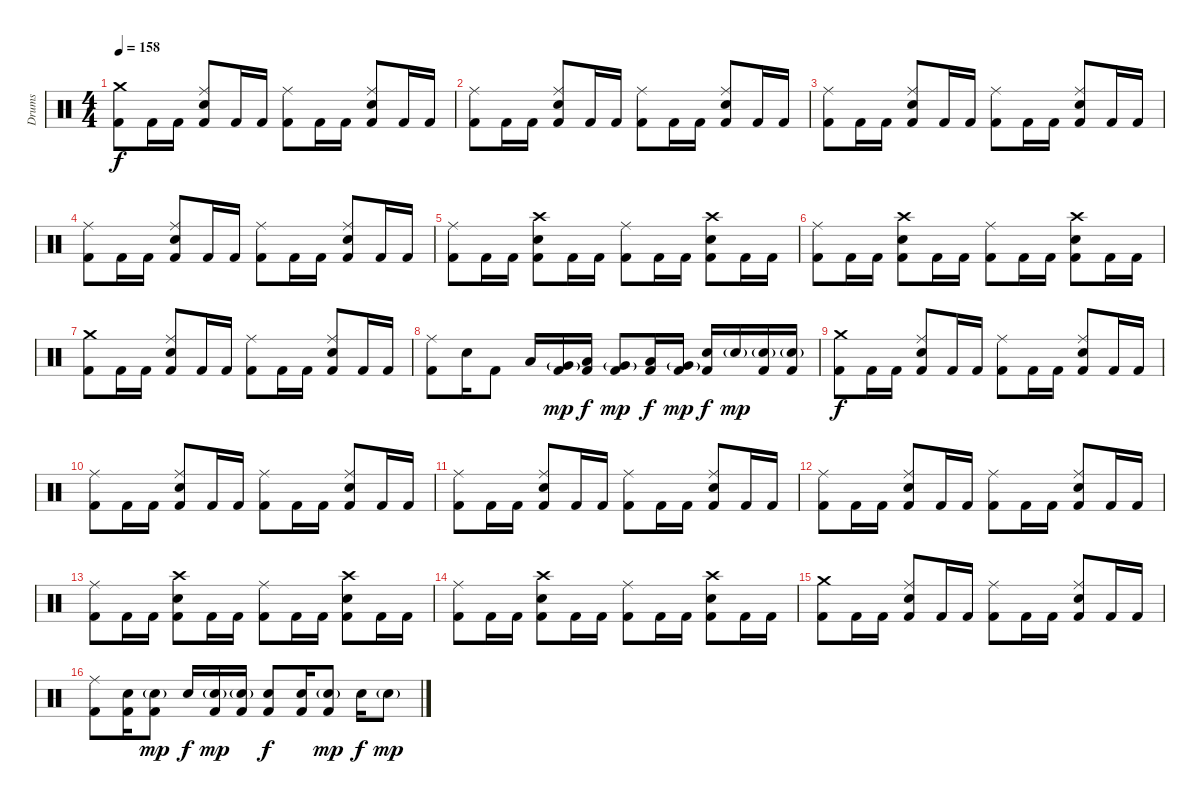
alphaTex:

\track ("Drums" "Drums") {instrument percussion}
\staff {score}
\articulation defaults
\ts (4 4)
\section ("" "")
\tempo 158
\clef neutral
\ks c
("Crash medium (hit)" "Kick (hit) 2").8{dy f} "Kick (hit) 2".16 "Kick (hit) 2".16 ("Ride (middle)" "Electric Snare (hit)" "Kick (hit) 2").8 "Kick (hit) 2".16 "Kick (hit) 2".16 ("Ride (middle)" "Kick (hit) 2").8 "Kick (hit) 2".16 "Kick (hit) 2".16 ("Ride (middle)" "Electric Snare (hit)" "Kick (hit) 2").8 "Kick (hit) 2".16 "Kick (hit) 2".16 |
("Ride (middle)" "Kick (hit) 2").8 "Kick (hit) 2".16 "Kick (hit) 2".16 ("Ride (middle)" "Electric Snare (hit)" "Kick (hit) 2").8 "Kick (hit) 2".16 "Kick (hit) 2".16 ("Ride (middle)" "Kick (hit) 2").8 "Kick (hit) 2".16 "Kick (hit) 2".16 ("Ride (middle)" "Electric Snare (hit)" "Kick (hit) 2").8 "Kick (hit) 2".16 "Kick (hit) 2".16 |
("Ride (middle)" "Kick (hit) 2").8 "Kick (hit) 2".16 "Kick (hit) 2".16 ("Ride (middle)" "Electric Snare (hit)" "Kick (hit) 2").8 "Kick (hit) 2".16 "Kick (hit) 2".16 ("Ride (middle)" "Kick (hit) 2").8 "Kick (hit) 2".16 "Kick (hit) 2".16 ("Ride (middle)" "Electric Snare (hit)" "Kick (hit) 2").8 "Kick (hit) 2".16 "Kick (hit) 2".16 |
("Ride (middle)" "Kick (hit) 2").8 "Kick (hit) 2".16 "Kick (hit) 2".16 ("Ride (middle)" "Electric Snare (hit)" "Kick (hit) 2").8 "Kick (hit) 2".16 "Kick (hit) 2".16 ("Ride (middle)" "Kick (hit) 2").8 "Kick (hit) 2".16 "Kick (hit) 2".16 ("Ride (middle)" "Electric Snare (hit)" "Kick (hit) 2").8 "Kick (hit) 2".16 "Kick (hit) 2".16 |
("Ride (middle)" "Kick (hit) 2").8 "Kick (hit) 2".16 "Kick (hit) 2".16 ("Crash high (hit)" "Electric Snare (hit)" "Kick (hit) 2").8 "Kick (hit) 2".16 "Kick (hit) 2".16 ("Ride (middle)" "Kick (hit) 2").8 "Kick (hit) 2".16 "Kick (hit) 2".16 ("Crash high (hit)" "Electric Snare (hit)" "Kick (hit) 2").8 "Kick (hit) 2".16 "Kick (hit) 2".16 |
("Ride (middle)" "Kick (hit) 2").8 "Kick (hit) 2".16 "Kick (hit) 2".16 ("Crash high (hit)" "Electric Snare (hit)" "Kick (hit) 2").8 "Kick (hit) 2".16 "Kick (hit) 2".16 ("Ride (middle)" "Kick (hit) 2").8 "Kick (hit) 2".16 "Kick (hit) 2".16 ("Crash high (hit)" "Electric Snare (hit)" "Kick (hit) 2").8 "Kick (hit) 2".16 "Kick (hit) 2".16 |
("Crash medium (hit)" "Kick (hit) 2").8 "Kick (hit) 2".16 "Kick (hit) 2".16 ("Ride (middle)" "Electric Snare (hit)" "Kick (hit) 2").8 "Kick (hit) 2".16 "Kick (hit) 2".16 ("Ride (middle)" "Kick (hit) 2").8 "Kick (hit) 2".16 "Kick (hit) 2".16 ("Ride (middle)" "Electric Snare (hit)" "Kick (hit) 2").8 "Kick (hit) 2".16 "Kick (hit) 2".16 |
("Ride (middle)" "Kick (hit) 2").8 "Electric Snare (hit)".16 "Kick (hit) 2".8 "Low Tom (hit)".16 ("Very Low Tom (hit)"{g} "Kick (hit) 2").16{dy mp} ("Low Tom (hit)" "Kick (hit) 2").16{dy f} ("Very Low Tom (hit)"{g} "Kick (hit) 2").8{dy mp} ("Low Tom (hit)" "Kick (hit) 2").16{dy f} ("Very Low Tom (hit)"{g} "Kick (hit) 2").16{dy mp} ("Electric Snare (hit)" "Kick (hit) 2").16{dy f} "Electric Snare (hit)"{g}.16{dy mp} ("Electric Snare (hit)"{g} "Kick (hit) 2").16 ("Electric Snare (hit)"{g} "Kick (hit) 2").16 |
\section ("" "")
("Crash medium (hit)" "Kick (hit) 2").8{dy f} "Kick (hit) 2".16 "Kick (hit) 2".16 ("Ride (middle)" "Electric Snare (hit)" "Kick (hit) 2").8 "Kick (hit) 2".16 "Kick (hit) 2".16 ("Ride (middle)" "Kick (hit) 2").8 "Kick (hit) 2".16 "Kick (hit) 2".16 ("Ride (middle)" "Electric Snare (hit)" "Kick (hit) 2").8 "Kick (hit) 2".16 "Kick (hit) 2".16 |
("Ride (middle)" "Kick (hit) 2").8 "Kick (hit) 2".16 "Kick (hit) 2".16 ("Ride (middle)" "Electric Snare (hit)" "Kick (hit) 2").8 "Kick (hit) 2".16 "Kick (hit) 2".16 ("Ride (middle)" "Kick (hit) 2").8 "Kick (hit) 2".16 "Kick (hit) 2".16 ("Ride (middle)" "Electric Snare (hit)" "Kick (hit) 2").8 "Kick (hit) 2".16 "Kick (hit) 2".16 |
("Ride (middle)" "Kick (hit) 2").8 "Kick (hit) 2".16 "Kick (hit) 2".16 ("Ride (middle)" "Electric Snare (hit)" "Kick (hit) 2").8 "Kick (hit) 2".16 "Kick (hit) 2".16 ("Ride (middle)" "Kick (hit) 2").8 "Kick (hit) 2".16 "Kick (hit) 2".16 ("Ride (middle)" "Electric Snare (hit)" "Kick (hit) 2").8 "Kick (hit) 2".16 "Kick (hit) 2".16 |
("Ride (middle)" "Kick (hit) 2").8 "Kick (hit) 2".16 "Kick (hit) 2".16 ("Ride (middle)" "Electric Snare (hit)" "Kick (hit) 2").8 "Kick (hit) 2".16 "Kick (hit) 2".16 ("Ride (middle)" "Kick (hit) 2").8 "Kick (hit) 2".16 "Kick (hit) 2".16 ("Ride (middle)" "Electric Snare (hit)" "Kick (hit) 2").8 "Kick (hit) 2".16 "Kick (hit) 2".16 |
("Ride (middle)" "Kick (hit) 2").8 "Kick (hit) 2".16 "Kick (hit) 2".16 ("Crash high (hit)" "Electric Snare (hit)" "Kick (hit) 2").8 "Kick (hit) 2".16 "Kick (hit) 2".16 ("Ride (middle)" "Kick (hit) 2").8 "Kick (hit) 2".16 "Kick (hit) 2".16 ("Crash high (hit)" "Electric Snare (hit)" "Kick (hit) 2").8 "Kick (hit) 2".16 "Kick (hit) 2".16 |
("Ride (middle)" "Kick (hit) 2").8 "Kick (hit) 2".16 "Kick (hit) 2".16 ("Crash high (hit)" "Electric Snare (hit)" "Kick (hit) 2").8 "Kick (hit) 2".16 "Kick (hit) 2".16 ("Ride (middle)" "Kick (hit) 2").8 "Kick (hit) 2".16 "Kick (hit) 2".16 ("Crash high (hit)" "Electric Snare (hit)" "Kick (hit) 2").8 "Kick (hit) 2".16 "Kick (hit) 2".16 |
("Crash medium (hit)" "Kick (hit) 2").8 "Kick (hit) 2".16 "Kick (hit) 2".16 ("Ride (middle)" "Electric Snare (hit)" "Kick (hit) 2").8 "Kick (hit) 2".16 "Kick (hit) 2".16 ("Ride (middle)" "Kick (hit) 2").8 "Kick (hit) 2".16 "Kick (hit) 2".16 ("Ride (middle)" "Electric Snare (hit)" "Kick (hit) 2").8 "Kick (hit) 2".16 "Kick (hit) 2".16 |
("Ride (middle)" "Kick (hit) 2").8 ("Electric Snare (hit)" "Kick (hit) 2").16 ("Electric Snare (hit)"{g} "Kick (hit) 2").8{dy mp} "Electric Snare (hit)".16{dy f} ("Electric Snare (hit)"{g} "Kick (hit) 2").16{dy mp} ("Electric Snare (hit)"{g} "Kick (hit) 2").16 ("Electric Snare (hit)" "Kick (hit) 2").8{dy f} ("Electric Snare (hit)" "Kick (hit) 2").16 ("Electric Snare (hit)"{g} "Kick (hit) 2").8{dy mp} "Electric Snare (hit)".16{dy f} "Electric Snare (hit)"{g}.8{dy mp}
